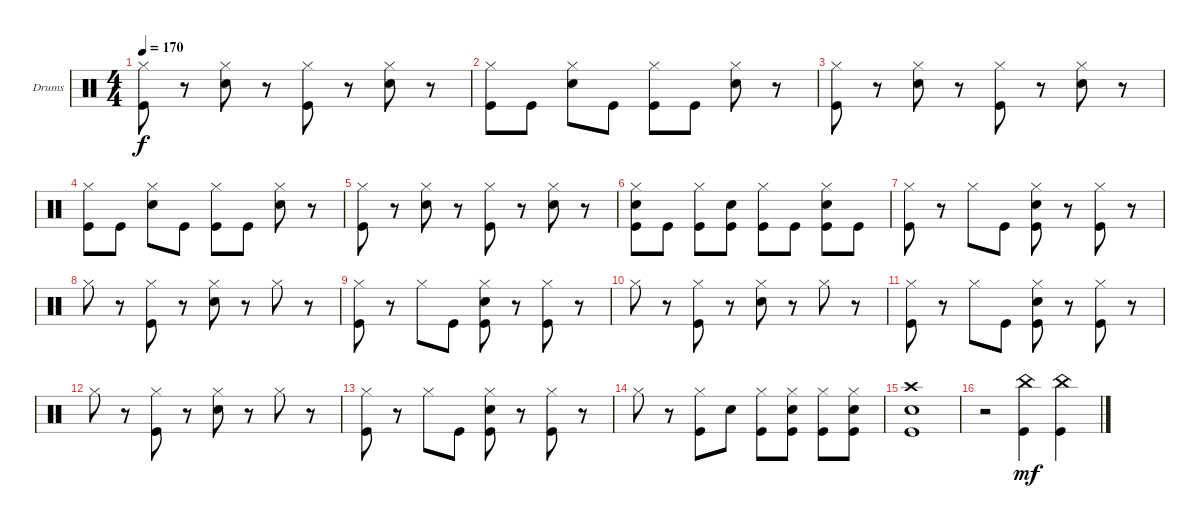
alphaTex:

\bracketExtendMode groupsimilarinstruments
\firstSystemTrackNameOrientation horizontal
\otherSystemsTrackNameOrientation horizontal
\track ("Drumkit" "Drums") {instrument percussion}
\staff {score}
\articulation defaults
\ts (4 4)
\tempo 170
\clef neutral
\ks c
("Hi-Hat (closed)" "Kick (hit)").8{dy f} r.8 ("Hi-Hat (closed)" "Snare (hit) 2").8 r.8 ("Hi-Hat (closed)" "Kick (hit)").8 r.8 ("Hi-Hat (closed)" "Snare (hit) 2").8 r.8 |
("Hi-Hat (closed)" "Kick (hit)").8 "Kick (hit)".8 ("Hi-Hat (closed)" "Snare (hit) 2").8 "Kick (hit)".8 ("Hi-Hat (closed)" "Kick (hit)").8 "Kick (hit)".8 ("Hi-Hat (closed)" "Snare (hit) 2").8 r.8 |
("Hi-Hat (closed)" "Kick (hit)").8 r.8 ("Hi-Hat (closed)" "Snare (hit) 2").8 r.8 ("Hi-Hat (closed)" "Kick (hit)").8 r.8 ("Hi-Hat (closed)" "Snare (hit) 2").8 r.8 |
("Hi-Hat (closed)" "Kick (hit)").8 "Kick (hit)".8 ("Hi-Hat (closed)" "Snare (hit) 2").8 "Kick (hit)".8 ("Hi-Hat (closed)" "Kick (hit)").8 "Kick (hit)".8 ("Hi-Hat (closed)" "Snare (hit) 2").8 r.8 |
("Hi-Hat (closed)" "Kick (hit)").8 r.8 ("Hi-Hat (closed)" "Snare (hit) 2").8 r.8 ("Hi-Hat (closed)" "Kick (hit)").8 r.8 ("Hi-Hat (closed)" "Snare (hit) 2").8 r.8 |
("Hi-Hat (closed)" "Snare (hit) 2" "Kick (hit)").8 "Kick (hit)".8 ("Hi-Hat (closed)" "Kick (hit)").8 ("Snare (hit) 2" "Kick (hit)").8 ("Hi-Hat (closed)" "Kick (hit)").8 "Kick (hit)".8 ("Hi-Hat (closed)" "Snare (hit) 2" "Kick (hit)").8 "Kick (hit)".8 |
("Hi-Hat (closed)" "Kick (hit)").8 r.8 "Hi-Hat (closed)".8 "Kick (hit)".8 ("Hi-Hat (closed)" "Snare (hit) 2" "Kick (hit)").8 r.8 ("Hi-Hat (closed)" "Kick (hit)").8 r.8 |
"Hi-Hat (closed)".8 r.8 ("Hi-Hat (closed)" "Kick (hit)").8 r.8 ("Hi-Hat (closed)" "Snare (hit) 2").8 r.8 "Hi-Hat (closed)".8 r.8 |
("Hi-Hat (closed)" "Kick (hit)").8 r.8 "Hi-Hat (closed)".8 "Kick (hit)".8 ("Hi-Hat (closed)" "Snare (hit) 2" "Kick (hit)").8 r.8 ("Hi-Hat (closed)" "Kick (hit)").8 r.8 |
"Hi-Hat (closed)".8 r.8 ("Hi-Hat (closed)" "Kick (hit)").8 r.8 ("Hi-Hat (closed)" "Snare (hit) 2").8 r.8 "Hi-Hat (closed)".8 r.8 |
("Hi-Hat (closed)" "Kick (hit)").8 r.8 "Hi-Hat (closed)".8 "Kick (hit)".8 ("Hi-Hat (closed)" "Snare (hit) 2" "Kick (hit)").8 r.8 ("Hi-Hat (closed)" "Kick (hit)").8 r.8 |
"Hi-Hat (closed)".8 r.8 ("Hi-Hat (closed)" "Kick (hit)").8 r.8 ("Hi-Hat (closed)" "Snare (hit) 2").8 r.8 "Hi-Hat (closed)".8 r.8 |
("Hi-Hat (closed)" "Kick (hit)").8 r.8 "Hi-Hat (closed)".8 "Kick (hit)".8 ("Hi-Hat (closed)" "Snare (hit) 2" "Kick (hit)").8 r.8 ("Hi-Hat (closed)" "Kick (hit)").8 r.8 |
"Hi-Hat (closed)".8 r.8 ("Hi-Hat (closed)" "Kick (hit)").8 "Snare (hit) 2".8 ("Hi-Hat (closed)" "Kick (hit)").8 ("Hi-Hat (closed)" "Kick (hit)" "Snare (hit) 2").8 ("Hi-Hat (closed)" "Kick (hit)").8 ("Hi-Hat (closed)" "Kick (hit)" "Snare (hit) 2").8 |
("Kick (hit)" "Snare (hit) 2" "Crash high (hit)").1 |
r.2 ("China (hit)" "Kick (hit)").4{dy mf} ("Kick (hit)" "China (hit)").4
